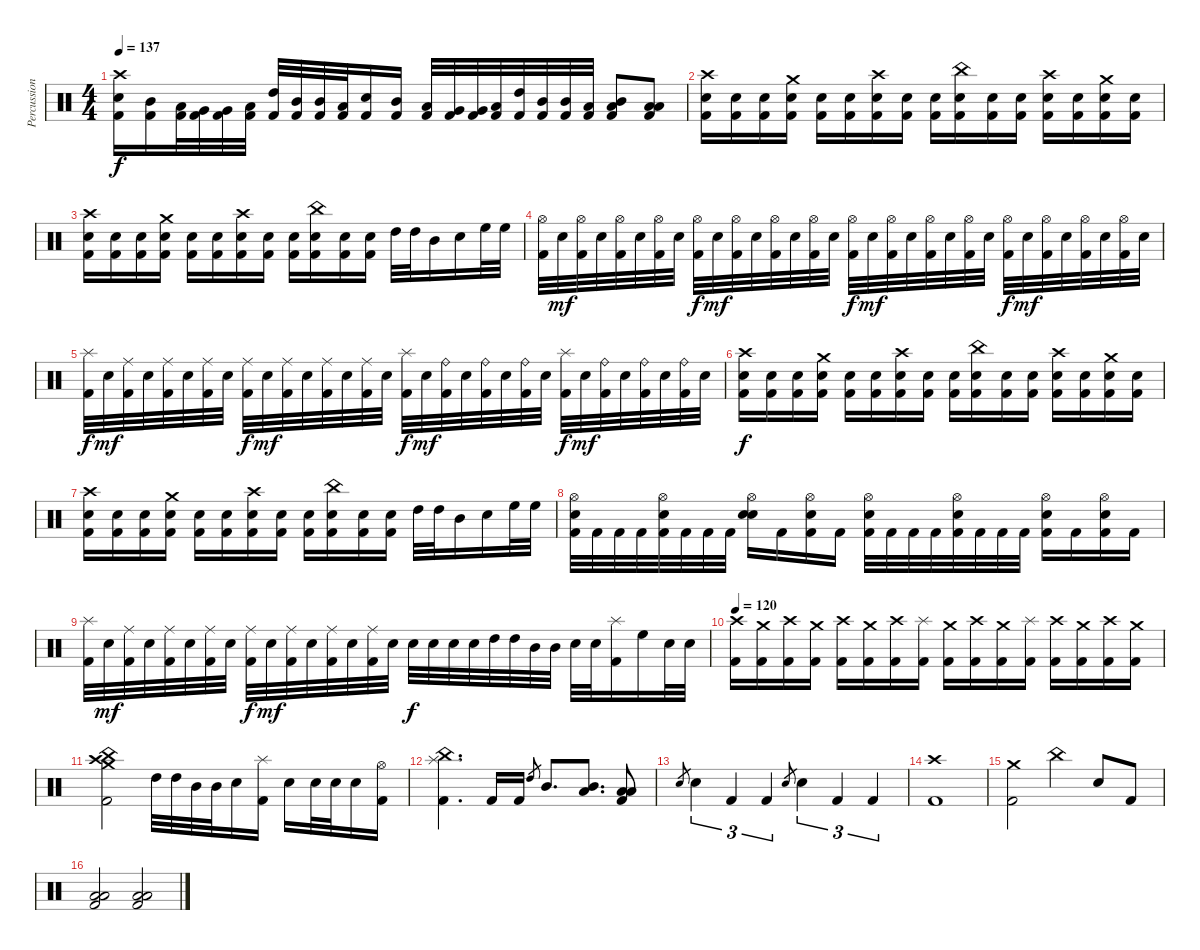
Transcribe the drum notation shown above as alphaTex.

\track ("Percussion" "Percussion") {instrument percussion}
\staff {score}
\articulation defaults
\ts (4 4)
\tempo 137
\clef neutral
\ks c
("Crash high (hit)" "Electric Snare (hit)" "Kick (hit) 2").16{dy f} ("Mid Tom (hit)" "Kick (hit) 2").16 ("Low Tom (hit)" "Kick (hit) 2").32 ("Very Low Tom (hit)" "Kick (hit) 2").32 ("Very Low Tom (hit)" "Kick (hit) 2").32 ("Low Floor Tom (hit)" "Kick (hit) 2").32 ("High Tom (hit)" "Kick (hit) 2").32 ("Mid Tom (hit)" "Kick (hit) 2").32 ("Mid Tom (hit)" "Kick (hit) 2").32 ("Low Tom (hit)" "Kick (hit) 2").32 ("Electric Snare (hit)" "Kick (hit) 2").16 ("Mid Tom (hit)" "Kick (hit) 2").16 ("Low Tom (hit)" "Kick (hit) 2").32 ("Very Low Tom (hit)" "Kick (hit) 2").32 ("Very Low Tom (hit)" "Kick (hit) 2").32 ("Low Floor Tom (hit)" "Kick (hit) 2").32 ("High Tom (hit)" "Kick (hit) 2").32 ("Mid Tom (hit)" "Kick (hit) 2").32 ("Mid Tom (hit)" "Kick (hit) 2").32 ("Low Tom (hit)" "Kick (hit) 2").32 ("Mid Tom (hit)" "Low Tom (hit)" "Kick (hit) 2").8 ("Low Tom (hit)" "Low Floor Tom (hit)" "Kick (hit) 2").8 |
("Crash high (hit)" "Electric Snare (hit)" "Kick (hit) 2").16 ("Electric Snare (hit)" "Kick (hit) 2").16 ("Electric Snare (hit)" "Kick (hit) 2").16 ("Crash medium (hit)" "Electric Snare (hit)" "Kick (hit) 2").16 ("Electric Snare (hit)" "Kick (hit) 2").16 ("Electric Snare (hit)" "Kick (hit) 2").16 ("Crash high (hit)" "Electric Snare (hit)" "Kick (hit) 2").16 ("Electric Snare (hit)" "Kick (hit) 2").16 ("Electric Snare (hit)" "Kick (hit) 2").16 ("China (hit)" "Electric Snare (hit)" "Kick (hit) 2").16 ("Electric Snare (hit)" "Kick (hit) 2").16 ("Electric Snare (hit)" "Kick (hit) 2").16 ("Crash high (hit)" "Electric Snare (hit)" "Kick (hit) 2").16 ("Electric Snare (hit)" "Kick (hit) 2").16 ("Crash medium (hit)" "Electric Snare (hit)" "Kick (hit) 2").16 ("Electric Snare (hit)" "Kick (hit) 2").16 |
("Crash high (hit)" "Electric Snare (hit)" "Kick (hit) 2").16 ("Electric Snare (hit)" "Kick (hit) 2").16 ("Electric Snare (hit)" "Kick (hit) 2").16 ("Crash medium (hit)" "Electric Snare (hit)" "Kick (hit) 2").16 ("Electric Snare (hit)" "Kick (hit) 2").16 ("Electric Snare (hit)" "Kick (hit) 2").16 ("Crash high (hit)" "Electric Snare (hit)" "Kick (hit) 2").16 ("Electric Snare (hit)" "Kick (hit) 2").16 ("Electric Snare (hit)" "Kick (hit) 2").16 ("China (hit)" "Electric Snare (hit)" "Kick (hit) 2").16 ("Electric Snare (hit)" "Kick (hit) 2").16 ("Electric Snare (hit)" "Kick (hit) 2").16 "High Tom (hit)".32 "High Tom (hit)".32 "Mid Tom (hit)".16 "Electric Snare (hit)".16 "High Floor Tom (hit)".32 "High Floor Tom (hit)".32 |
("Hi-Hat (open)" "Kick (hit) 2").32 "Electric Snare (hit)".32{dy mf} ("Hi-Hat (open)" "Kick (hit) 2").32 "Electric Snare (hit)".32 ("Hi-Hat (open)" "Kick (hit) 2").32 "Electric Snare (hit)".32 ("Hi-Hat (open)" "Kick (hit) 2").32 "Electric Snare (hit)".32 ("Hi-Hat (open)" "Kick (hit) 2").32{dy f} "Electric Snare (hit)".32{dy mf} ("Hi-Hat (open)" "Kick (hit) 2").32 "Electric Snare (hit)".32 ("Hi-Hat (open)" "Kick (hit) 2").32 "Electric Snare (hit)".32 ("Hi-Hat (open)" "Kick (hit) 2").32 "Electric Snare (hit)".32 ("Hi-Hat (open)" "Kick (hit) 2").32{dy f} "Electric Snare (hit)".32{dy mf} ("Hi-Hat (open)" "Kick (hit) 2").32 "Electric Snare (hit)".32 ("Hi-Hat (open)" "Kick (hit) 2").32 "Electric Snare (hit)".32 ("Hi-Hat (open)" "Kick (hit) 2").32 "Electric Snare (hit)".32 ("Hi-Hat (open)" "Kick (hit) 2").32{dy f} "Electric Snare (hit)".32{dy mf} ("Hi-Hat (open)" "Kick (hit) 2").32 "Electric Snare (hit)".32 ("Hi-Hat (open)" "Kick (hit) 2").32 "Electric Snare (hit)".32 ("Hi-Hat (open)" "Kick (hit) 2").32 "Electric Snare (hit)".32 |
("Splash (hit)" "Kick (hit) 2").32{dy f} "Electric Snare (hit)".32{dy mf} ("Ride (middle)" "Kick (hit) 2").32 "Electric Snare (hit)".32 ("Ride (middle)" "Kick (hit) 2").32 "Electric Snare (hit)".32 ("Ride (middle)" "Kick (hit) 2").32 "Electric Snare (hit)".32 ("Ride (middle)" "Kick (hit) 2").32{dy f} "Electric Snare (hit)".32{dy mf} ("Ride (middle)" "Kick (hit) 2").32 "Electric Snare (hit)".32 ("Ride (middle)" "Kick (hit) 2").32 "Electric Snare (hit)".32 ("Ride (middle)" "Kick (hit) 2").32 "Electric Snare (hit)".32 ("Splash (hit)" "Kick (hit) 2").32{dy f} "Electric Snare (hit)".32{dy mf} ("Ride (bell)" "Kick (hit) 2").32 "Electric Snare (hit)".32 ("Ride (bell)" "Kick (hit) 2").32 "Electric Snare (hit)".32 ("Ride (bell)" "Kick (hit) 2").32 "Electric Snare (hit)".32 ("Splash (hit)" "Kick (hit) 2").32{dy f} "Electric Snare (hit)".32{dy mf} ("Ride (bell)" "Kick (hit) 2").32 "Electric Snare (hit)".32 ("Ride (bell)" "Kick (hit) 2").32 "Electric Snare (hit)".32 ("Ride (bell)" "Kick (hit) 2").32 "Electric Snare (hit)".32 |
("Crash high (hit)" "Electric Snare (hit)" "Kick (hit) 2").16{dy f} ("Electric Snare (hit)" "Kick (hit) 2").16 ("Electric Snare (hit)" "Kick (hit) 2").16 ("Crash medium (hit)" "Electric Snare (hit)" "Kick (hit) 2").16 ("Electric Snare (hit)" "Kick (hit) 2").16 ("Electric Snare (hit)" "Kick (hit) 2").16 ("Crash high (hit)" "Electric Snare (hit)" "Kick (hit) 2").16 ("Electric Snare (hit)" "Kick (hit) 2").16 ("Electric Snare (hit)" "Kick (hit) 2").16 ("China (hit)" "Electric Snare (hit)" "Kick (hit) 2").16 ("Electric Snare (hit)" "Kick (hit) 2").16 ("Electric Snare (hit)" "Kick (hit) 2").16 ("Crash high (hit)" "Electric Snare (hit)" "Kick (hit) 2").16 ("Electric Snare (hit)" "Kick (hit) 2").16 ("Crash medium (hit)" "Electric Snare (hit)" "Kick (hit) 2").16 ("Electric Snare (hit)" "Kick (hit) 2").16 |
("Crash high (hit)" "Electric Snare (hit)" "Kick (hit) 2").16 ("Electric Snare (hit)" "Kick (hit) 2").16 ("Electric Snare (hit)" "Kick (hit) 2").16 ("Crash medium (hit)" "Electric Snare (hit)" "Kick (hit) 2").16 ("Electric Snare (hit)" "Kick (hit) 2").16 ("Electric Snare (hit)" "Kick (hit) 2").16 ("Crash high (hit)" "Electric Snare (hit)" "Kick (hit) 2").16 ("Electric Snare (hit)" "Kick (hit) 2").16 ("Electric Snare (hit)" "Kick (hit) 2").16 ("China (hit)" "Electric Snare (hit)" "Kick (hit) 2").16 ("Electric Snare (hit)" "Kick (hit) 2").16 ("Electric Snare (hit)" "Kick (hit) 2").16 "High Tom (hit)".32 "High Tom (hit)".32 "Mid Tom (hit)".16 "Electric Snare (hit)".16 "High Floor Tom (hit)".32 "High Floor Tom (hit)".32 |
("Hi-Hat (open)" "Electric Snare (hit)" "Kick (hit) 2").32 "Kick (hit) 2".32 "Kick (hit) 2".32 "Kick (hit) 2".32 ("Hi-Hat (open)" "Electric Snare (hit)" "Kick (hit) 2").32 "Kick (hit) 2".32 "Kick (hit) 2".32 "Kick (hit) 2".32 ("Hi-Hat (open)" "Electric Snare (hit)" "Snare (hit) 2").16 "Kick (hit) 2".16 ("Hi-Hat (open)" "Electric Snare (hit)" "Kick (hit) 2").16 "Kick (hit) 2".16 ("Hi-Hat (open)" "Electric Snare (hit)" "Kick (hit) 2").32 "Kick (hit) 2".32 "Kick (hit) 2".32 "Kick (hit) 2".32 ("Hi-Hat (open)" "Electric Snare (hit)" "Kick (hit) 2").32 "Kick (hit) 2".32 "Kick (hit) 2".32 "Kick (hit) 2".32 ("Hi-Hat (open)" "Electric Snare (hit)" "Kick (hit) 2").16 "Kick (hit) 2".16 ("Hi-Hat (open)" "Electric Snare (hit)" "Kick (hit) 2").16 "Kick (hit) 2".16 |
("Splash (hit)" "Kick (hit) 2").32 "Electric Snare (hit)".32{dy mf} ("Ride (middle)" "Kick (hit) 2").32 "Electric Snare (hit)".32 ("Ride (middle)" "Kick (hit) 2").32 "Electric Snare (hit)".32 ("Ride (middle)" "Kick (hit) 2").32 "Electric Snare (hit)".32 ("Ride (middle)" "Kick (hit) 2").32{dy f} "Electric Snare (hit)".32{dy mf} ("Ride (middle)" "Kick (hit) 2").32 "Electric Snare (hit)".32 ("Ride (middle)" "Kick (hit) 2").32 "Electric Snare (hit)".32 ("Ride (middle)" "Kick (hit) 2").32 "Electric Snare (hit)".32 "Electric Snare (hit)".32{dy f} "Electric Snare (hit)".32 "Electric Snare (hit)".32 "Electric Snare (hit)".32 "High Tom (hit)".32 "High Tom (hit)".32 "Mid Tom (hit)".32 "Mid Tom (hit)".32 "Electric Snare (hit)".32 "Electric Snare (hit)".32 ("Splash (hit)" "Kick (hit) 2").16 "High Floor Tom (hit)".16 "Electric Snare (hit)".32 "Electric Snare (hit)".32 |
\tempo 120
("Crash high (hit)" "Kick (hit) 2").16 ("Crash medium (hit)" "Kick (hit) 2").16 ("Crash high (hit)" "Kick (hit) 2").16 ("Crash medium (hit)" "Kick (hit) 2").16 ("Crash high (hit)" "Kick (hit) 2").16 ("Crash medium (hit)" "Kick (hit) 2").16 ("Crash high (hit)" "Kick (hit) 2").16 ("Splash (hit)" "Kick (hit) 2").16 ("Crash medium (hit)" "Kick (hit) 2").16 ("Crash high (hit)" "Kick (hit) 2").16 ("Crash medium (hit)" "Kick (hit) 2").16 ("Splash (hit)" "Kick (hit) 2").16 ("Crash high (hit)" "Kick (hit) 2").16 ("Crash medium (hit)" "Kick (hit) 2").16 ("Crash high (hit)" "Kick (hit) 2").16 ("Crash medium (hit)" "Kick (hit) 2").16 |
("China (hit)" "Crash high (hit)" "Crash medium (hit)" "Kick (hit) 2").2 "High Tom (hit)".32 "High Tom (hit)".32 "Mid Tom (hit)".32 "Mid Tom (hit)".32 "Electric Snare (hit)".16 ("Splash (hit)" "Kick (hit) 2").16 "Electric Snare (hit)".16 "Electric Snare (hit)".32 "Electric Snare (hit)".32 "Electric Snare (hit)".16 ("Hi-Hat (open)" "Kick (hit) 2").16 |
("China (hit)" "Splash (hit)" "Kick (hit) 2").4{d} "Kick (hit) 2".16 "Kick (hit) 2".16 "High Tom (hit)"{h}.8{gr} "Mid Tom (hit)".8{d} ("Low Tom (hit)" "Mid Tom (hit)").8{d} ("Low Tom (hit)" "Low Floor Tom (hit)" "Kick (hit) 2").8 |
"Electric Snare (hit)"{h}.8{gr} "Electric Snare (hit)".4{tu (3 2)} "Kick (hit) 2".4{tu (3 2)} "Kick (hit) 2".4{tu (3 2)} "Electric Snare (hit)"{h}.8{gr} "Electric Snare (hit)".4{tu (3 2)} "Kick (hit) 2".4{tu (3 2)} "Kick (hit) 2".4{tu (3 2)} |
("Crash high (hit)" "Kick (hit) 2").1 |
("Crash medium (hit)" "Kick (hit) 2").2 "China (hit)".4 "Electric Snare (hit)".8 "Kick (hit) 2".8 |
("Low Tom (hit)" "Low Floor Tom (hit)" "Kick (hit) 2").2 ("Low Floor Tom (hit)" "Low Tom (hit)" "Kick (hit) 2").2
